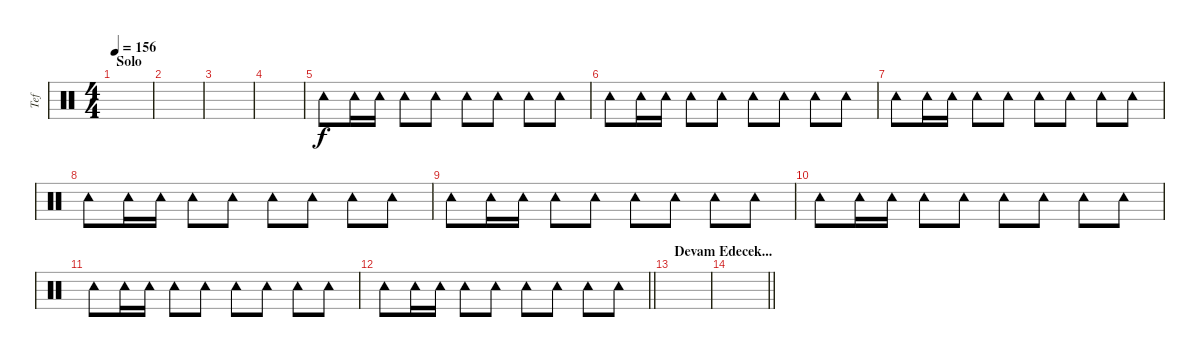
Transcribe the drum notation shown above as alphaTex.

\track ("Tef" "Tef") {instrument percussion}
\staff {score}
\articulation defaults
\ts (4 4)
\section ("" "Solo")
\tempo 156
\clef neutral
\ks c
|
|
|
|
"Tambourine (hit)".8 "Tambourine (hit)".16 "Tambourine (hit)".16 "Tambourine (hit)".8 "Tambourine (hit)".8 "Tambourine (hit)".8 "Tambourine (hit)".8 "Tambourine (hit)".8 "Tambourine (hit)".8 |
"Tambourine (hit)".8 "Tambourine (hit)".16 "Tambourine (hit)".16 "Tambourine (hit)".8 "Tambourine (hit)".8 "Tambourine (hit)".8 "Tambourine (hit)".8 "Tambourine (hit)".8 "Tambourine (hit)".8 |
"Tambourine (hit)".8 "Tambourine (hit)".16 "Tambourine (hit)".16 "Tambourine (hit)".8 "Tambourine (hit)".8 "Tambourine (hit)".8 "Tambourine (hit)".8 "Tambourine (hit)".8 "Tambourine (hit)".8 |
"Tambourine (hit)".8 "Tambourine (hit)".16 "Tambourine (hit)".16 "Tambourine (hit)".8 "Tambourine (hit)".8 "Tambourine (hit)".8 "Tambourine (hit)".8 "Tambourine (hit)".8 "Tambourine (hit)".8 |
"Tambourine (hit)".8 "Tambourine (hit)".16 "Tambourine (hit)".16 "Tambourine (hit)".8 "Tambourine (hit)".8 "Tambourine (hit)".8 "Tambourine (hit)".8 "Tambourine (hit)".8 "Tambourine (hit)".8 |
"Tambourine (hit)".8 "Tambourine (hit)".16 "Tambourine (hit)".16 "Tambourine (hit)".8 "Tambourine (hit)".8 "Tambourine (hit)".8 "Tambourine (hit)".8 "Tambourine (hit)".8 "Tambourine (hit)".8 |
"Tambourine (hit)".8 "Tambourine (hit)".16 "Tambourine (hit)".16 "Tambourine (hit)".8 "Tambourine (hit)".8 "Tambourine (hit)".8 "Tambourine (hit)".8 "Tambourine (hit)".8 "Tambourine (hit)".8 |
\barLineRight lightlight "Tambourine (hit)".8 "Tambourine (hit)".16 "Tambourine (hit)".16 "Tambourine (hit)".8 "Tambourine (hit)".8 "Tambourine (hit)".8 "Tambourine (hit)".8 "Tambourine (hit)".8 "Tambourine (hit)".8
|
\section ("" "Devam Edecek...")
|
\barLineRight lightlight
